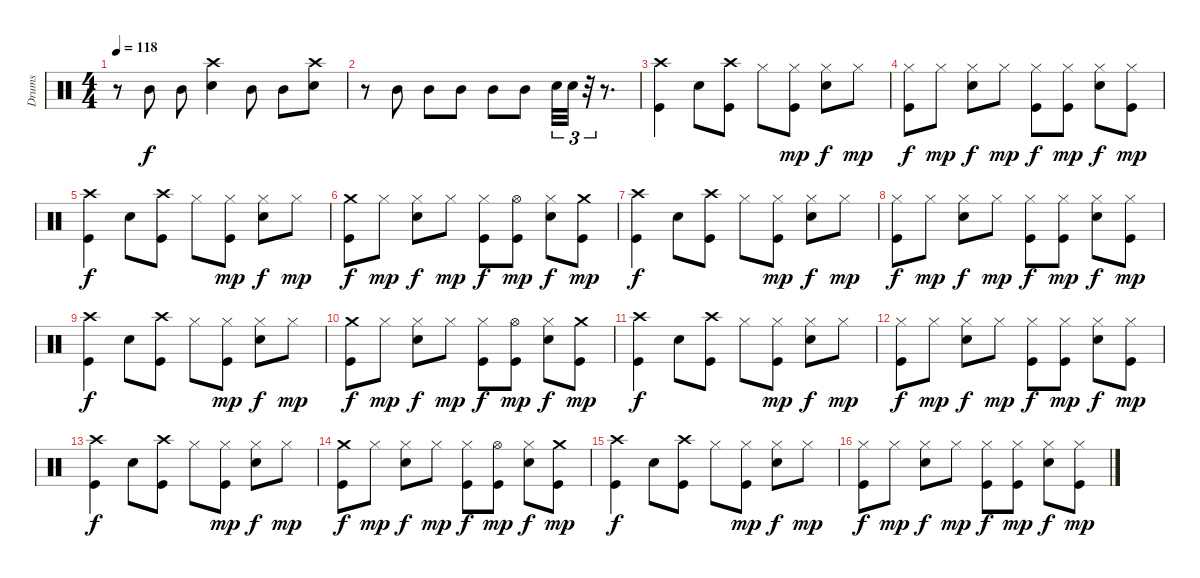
\track ("Drums" "Drums") {instrument percussion}
\staff {score}
\articulation defaults
\ts (4 4)
\tempo 118
\clef neutral
\ks c
r.8{dy mp} "Mid Tom (hit)".8{dy f} "Mid Tom (hit)".8 ("Crash high (hit)" "Snare (hit) 2").4 "Mid Tom (hit)".8 "Mid Tom (hit)".8 ("Crash high (hit)" "Snare (hit) 2").8 |
r.8 "Mid Tom (hit)".8 "Mid Tom (hit)".8 "Mid Tom (hit)".8 "Mid Tom (hit)".8 "Mid Tom (hit)".8 "Snare (hit) 2".32{tu (3 2)} "Snare (hit) 2".32{tu (3 2)} r.32{tu (3 2)} r.8{d} |
("Crash high (hit)" "Kick (hit)").4 "Snare (hit) 2".8 ("Crash high (hit)" "Kick (hit)").8 "Hi-Hat (closed)".8 ("Hi-Hat (closed)" "Kick (hit)").8{dy mp} ("Hi-Hat (closed)" "Snare (hit) 2").8{dy f} "Hi-Hat (closed)".8{dy mp} |
("Hi-Hat (closed)" "Kick (hit)").8{dy f} "Hi-Hat (closed)".8{dy mp} ("Hi-Hat (closed)" "Snare (hit) 2").8{dy f} "Hi-Hat (closed)".8{dy mp} ("Hi-Hat (closed)" "Kick (hit)").8{dy f} ("Hi-Hat (closed)" "Kick (hit)").8{dy mp} ("Hi-Hat (closed)" "Snare (hit) 2").8{dy f} ("Hi-Hat (closed)" "Kick (hit)").8{dy mp} |
("Crash high (hit)" "Kick (hit)").4{dy f} "Snare (hit) 2".8 ("Crash high (hit)" "Kick (hit)").8 "Hi-Hat (closed)".8 ("Hi-Hat (closed)" "Kick (hit)").8{dy mp} ("Hi-Hat (closed)" "Snare (hit) 2").8{dy f} "Hi-Hat (closed)".8{dy mp} |
("Crash medium (hit)" "Kick (hit)").8{dy f} "Hi-Hat (closed)".8{dy mp} ("Hi-Hat (closed)" "Snare (hit) 2").8{dy f} "Hi-Hat (closed)".8{dy mp} ("Hi-Hat (closed)" "Kick (hit)").8{dy f} ("Hi-Hat (open)" "Kick (hit)").8{dy mp} ("Hi-Hat (closed)" "Snare (hit) 2").8{dy f} ("Crash medium (hit)" "Kick (hit)").8{dy mp} |
("Crash high (hit)" "Kick (hit)").4{dy f} "Snare (hit) 2".8 ("Crash high (hit)" "Kick (hit)").8 "Hi-Hat (closed)".8 ("Hi-Hat (closed)" "Kick (hit)").8{dy mp} ("Hi-Hat (closed)" "Snare (hit) 2").8{dy f} "Hi-Hat (closed)".8{dy mp} |
("Hi-Hat (closed)" "Kick (hit)").8{dy f} "Hi-Hat (closed)".8{dy mp} ("Hi-Hat (closed)" "Snare (hit) 2").8{dy f} "Hi-Hat (closed)".8{dy mp} ("Hi-Hat (closed)" "Kick (hit)").8{dy f} ("Hi-Hat (closed)" "Kick (hit)").8{dy mp} ("Hi-Hat (closed)" "Snare (hit) 2").8{dy f} ("Hi-Hat (closed)" "Kick (hit)").8{dy mp} |
("Crash high (hit)" "Kick (hit)").4{dy f} "Snare (hit) 2".8 ("Crash high (hit)" "Kick (hit)").8 "Hi-Hat (closed)".8 ("Hi-Hat (closed)" "Kick (hit)").8{dy mp} ("Hi-Hat (closed)" "Snare (hit) 2").8{dy f} "Hi-Hat (closed)".8{dy mp} |
("Crash medium (hit)" "Kick (hit)").8{dy f} "Hi-Hat (closed)".8{dy mp} ("Hi-Hat (closed)" "Snare (hit) 2").8{dy f} "Hi-Hat (closed)".8{dy mp} ("Hi-Hat (closed)" "Kick (hit)").8{dy f} ("Hi-Hat (open)" "Kick (hit)").8{dy mp} ("Hi-Hat (closed)" "Snare (hit) 2").8{dy f} ("Crash medium (hit)" "Kick (hit)").8{dy mp} |
("Crash high (hit)" "Kick (hit)").4{dy f} "Snare (hit) 2".8 ("Crash high (hit)" "Kick (hit)").8 "Hi-Hat (closed)".8 ("Hi-Hat (closed)" "Kick (hit)").8{dy mp} ("Hi-Hat (closed)" "Snare (hit) 2").8{dy f} "Hi-Hat (closed)".8{dy mp} |
("Hi-Hat (closed)" "Kick (hit)").8{dy f} "Hi-Hat (closed)".8{dy mp} ("Hi-Hat (closed)" "Snare (hit) 2").8{dy f} "Hi-Hat (closed)".8{dy mp} ("Hi-Hat (closed)" "Kick (hit)").8{dy f} ("Hi-Hat (closed)" "Kick (hit)").8{dy mp} ("Hi-Hat (closed)" "Snare (hit) 2").8{dy f} ("Hi-Hat (closed)" "Kick (hit)").8{dy mp} |
("Crash high (hit)" "Kick (hit)").4{dy f} "Snare (hit) 2".8 ("Crash high (hit)" "Kick (hit)").8 "Hi-Hat (closed)".8 ("Hi-Hat (closed)" "Kick (hit)").8{dy mp} ("Hi-Hat (closed)" "Snare (hit) 2").8{dy f} "Hi-Hat (closed)".8{dy mp} |
("Crash medium (hit)" "Kick (hit)").8{dy f} "Hi-Hat (closed)".8{dy mp} ("Hi-Hat (closed)" "Snare (hit) 2").8{dy f} "Hi-Hat (closed)".8{dy mp} ("Hi-Hat (closed)" "Kick (hit)").8{dy f} ("Hi-Hat (open)" "Kick (hit)").8{dy mp} ("Hi-Hat (closed)" "Snare (hit) 2").8{dy f} ("Crash medium (hit)" "Kick (hit)").8{dy mp} |
("Crash high (hit)" "Kick (hit)").4{dy f} "Snare (hit) 2".8 ("Crash high (hit)" "Kick (hit)").8 "Hi-Hat (closed)".8 ("Hi-Hat (closed)" "Kick (hit)").8{dy mp} ("Hi-Hat (closed)" "Snare (hit) 2").8{dy f} "Hi-Hat (closed)".8{dy mp} |
("Hi-Hat (closed)" "Kick (hit)").8{dy f} "Hi-Hat (closed)".8{dy mp} ("Hi-Hat (closed)" "Snare (hit) 2").8{dy f} "Hi-Hat (closed)".8{dy mp} ("Hi-Hat (closed)" "Kick (hit)").8{dy f} ("Hi-Hat (closed)" "Kick (hit)").8{dy mp} ("Hi-Hat (closed)" "Snare (hit) 2").8{dy f} ("Hi-Hat (closed)" "Kick (hit)").8{dy mp}
